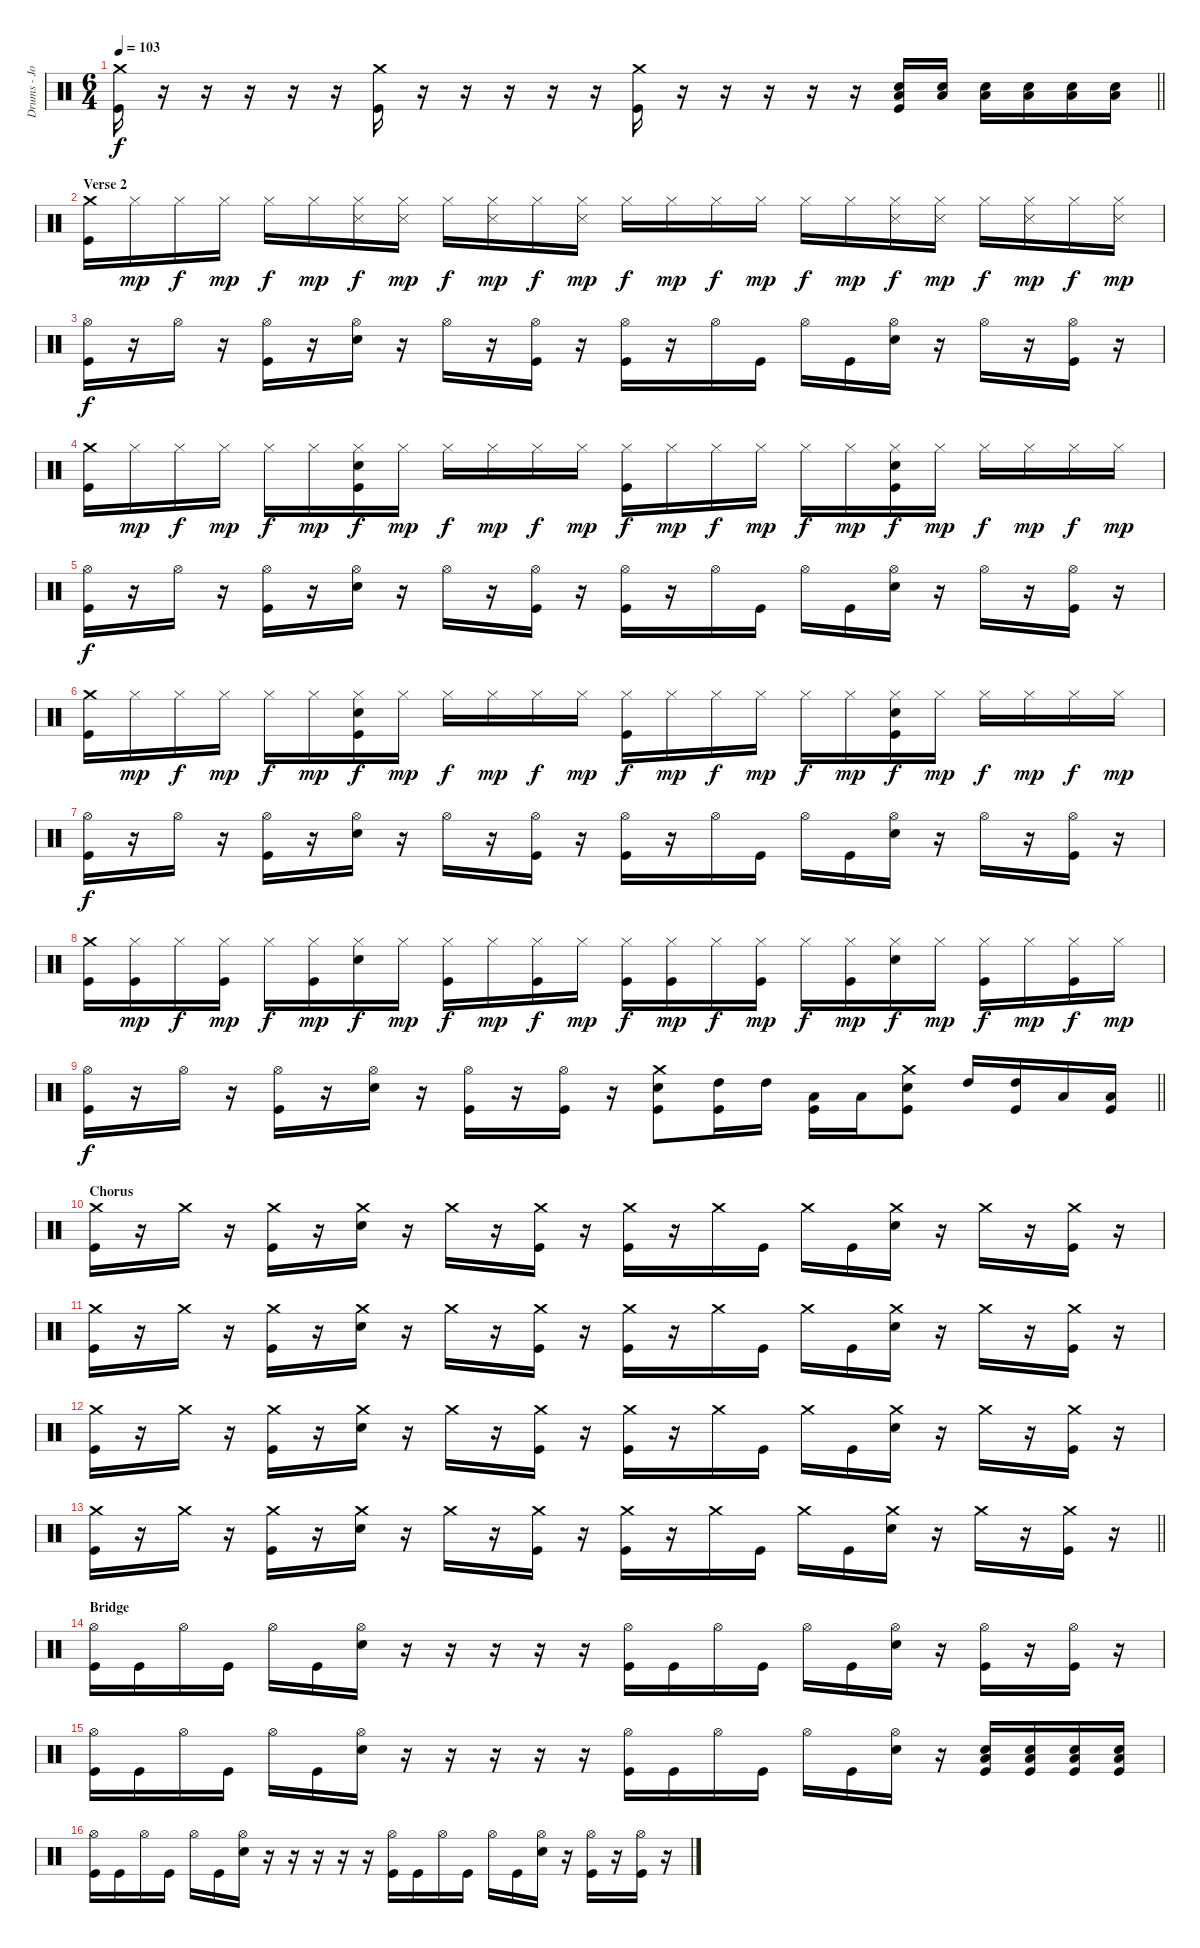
\track ("Drums - Josh Wills" "Drums - Jo") {instrument percussion}
\staff {score}
\articulation defaults
\ts (6 4)
\tempo 103
\clef neutral
\barLineRight lightlight
\ks c
("Crash medium (hit)" "Kick (hit)").16{dy f} r.16 r.16 r.16 r.16 r.16 ("Crash medium (hit)" "Kick (hit)").16 r.16 r.16 r.16 r.16 r.16 ("Crash medium (hit)" "Kick (hit)").16 r.16 r.16 r.16 r.16 r.16 ("Low Tom (hit)" "Electric Snare (hit)" "Kick (hit)").16 ("Low Tom (hit)" "Electric Snare (hit)").16 ("Low Tom (hit)" "Electric Snare (hit)").16 ("Low Tom (hit)" "Electric Snare (hit)").16 ("Low Tom (hit)" "Electric Snare (hit)").16 ("Low Tom (hit)" "Electric Snare (hit)").16 |
\section ("" "Verse 2")
("Crash medium (hit)" "Kick (hit)").16 "Hi-Hat (closed)".16{dy mp} "Hi-Hat (closed)".16{dy f} "Hi-Hat (closed)".16{dy mp} "Hi-Hat (closed)".16{dy f} "Hi-Hat (closed)".16{dy mp} ("Hi-Hat (closed)" "Snare (side stick) 3").16{dy f} ("Hi-Hat (closed)" "Snare (side stick) 3").16{dy mp} "Hi-Hat (closed)".16{dy f} ("Hi-Hat (closed)" "Snare (side stick) 3").16{dy mp} "Hi-Hat (closed)".16{dy f} ("Hi-Hat (closed)" "Snare (side stick) 3").16{dy mp} "Hi-Hat (closed)".16{dy f} "Hi-Hat (closed)".16{dy mp} "Hi-Hat (closed)".16{dy f} "Hi-Hat (closed)".16{dy mp} "Hi-Hat (closed)".16{dy f} "Hi-Hat (closed)".16{dy mp} ("Hi-Hat (closed)" "Snare (side stick) 3").16{dy f} ("Hi-Hat (closed)" "Snare (side stick) 3").16{dy mp} "Hi-Hat (closed)".16{dy f} ("Hi-Hat (closed)" "Snare (side stick) 3").16{dy mp} "Hi-Hat (closed)".16{dy f} ("Hi-Hat (closed)" "Snare (side stick) 3").16{dy mp} |
("Hi-Hat (open)" "Kick (hit)").16{dy f} r.16 "Hi-Hat (open)".16 r.16 ("Hi-Hat (open)" "Kick (hit)").16 r.16 ("Hi-Hat (open)" "Electric Snare (hit)").16 r.16 "Hi-Hat (open)".16 r.16 ("Hi-Hat (open)" "Kick (hit)").16 r.16 ("Hi-Hat (open)" "Kick (hit)").16 r.16 "Hi-Hat (open)".16 "Kick (hit)".16 "Hi-Hat (open)".16 "Kick (hit)".16 ("Hi-Hat (open)" "Electric Snare (hit)").16 r.16 "Hi-Hat (open)".16 r.16 ("Hi-Hat (open)" "Kick (hit)").16 r.16 |
("Crash medium (hit)" "Kick (hit)").16 "Hi-Hat (closed)".16{dy mp} "Hi-Hat (closed)".16{dy f} "Hi-Hat (closed)".16{dy mp} "Hi-Hat (closed)".16{dy f} "Hi-Hat (closed)".16{dy mp} ("Hi-Hat (closed)" "Electric Snare (hit)" "Kick (hit)").16{dy f} "Hi-Hat (closed)".16{dy mp} "Hi-Hat (closed)".16{dy f} "Hi-Hat (closed)".16{dy mp} "Hi-Hat (closed)".16{dy f} "Hi-Hat (closed)".16{dy mp} ("Hi-Hat (closed)" "Kick (hit)").16{dy f} "Hi-Hat (closed)".16{dy mp} "Hi-Hat (closed)".16{dy f} "Hi-Hat (closed)".16{dy mp} "Hi-Hat (closed)".16{dy f} "Hi-Hat (closed)".16{dy mp} ("Hi-Hat (closed)" "Electric Snare (hit)" "Kick (hit)").16{dy f} "Hi-Hat (closed)".16{dy mp} "Hi-Hat (closed)".16{dy f} "Hi-Hat (closed)".16{dy mp} "Hi-Hat (closed)".16{dy f} "Hi-Hat (closed)".16{dy mp} |
("Hi-Hat (open)" "Kick (hit)").16{dy f} r.16 "Hi-Hat (open)".16 r.16 ("Hi-Hat (open)" "Kick (hit)").16 r.16 ("Hi-Hat (open)" "Electric Snare (hit)").16 r.16 "Hi-Hat (open)".16 r.16 ("Hi-Hat (open)" "Kick (hit)").16 r.16 ("Hi-Hat (open)" "Kick (hit)").16 r.16 "Hi-Hat (open)".16 "Kick (hit)".16 "Hi-Hat (open)".16 "Kick (hit)".16 ("Hi-Hat (open)" "Electric Snare (hit)").16 r.16 "Hi-Hat (open)".16 r.16 ("Hi-Hat (open)" "Kick (hit)").16 r.16 |
("Crash medium (hit)" "Kick (hit)").16 "Hi-Hat (closed)".16{dy mp} "Hi-Hat (closed)".16{dy f} "Hi-Hat (closed)".16{dy mp} "Hi-Hat (closed)".16{dy f} "Hi-Hat (closed)".16{dy mp} ("Hi-Hat (closed)" "Electric Snare (hit)" "Kick (hit)").16{dy f} "Hi-Hat (closed)".16{dy mp} "Hi-Hat (closed)".16{dy f} "Hi-Hat (closed)".16{dy mp} "Hi-Hat (closed)".16{dy f} "Hi-Hat (closed)".16{dy mp} ("Hi-Hat (closed)" "Kick (hit)").16{dy f} "Hi-Hat (closed)".16{dy mp} "Hi-Hat (closed)".16{dy f} "Hi-Hat (closed)".16{dy mp} "Hi-Hat (closed)".16{dy f} "Hi-Hat (closed)".16{dy mp} ("Hi-Hat (closed)" "Electric Snare (hit)" "Kick (hit)").16{dy f} "Hi-Hat (closed)".16{dy mp} "Hi-Hat (closed)".16{dy f} "Hi-Hat (closed)".16{dy mp} "Hi-Hat (closed)".16{dy f} "Hi-Hat (closed)".16{dy mp} |
("Hi-Hat (open)" "Kick (hit)").16{dy f} r.16 "Hi-Hat (open)".16 r.16 ("Hi-Hat (open)" "Kick (hit)").16 r.16 ("Hi-Hat (open)" "Electric Snare (hit)").16 r.16 "Hi-Hat (open)".16 r.16 ("Hi-Hat (open)" "Kick (hit)").16 r.16 ("Hi-Hat (open)" "Kick (hit)").16 r.16 "Hi-Hat (open)".16 "Kick (hit)".16 "Hi-Hat (open)".16 "Kick (hit)".16 ("Hi-Hat (open)" "Electric Snare (hit)").16 r.16 "Hi-Hat (open)".16 r.16 ("Hi-Hat (open)" "Kick (hit)").16 r.16 |
("Crash medium (hit)" "Kick (hit)").16 ("Hi-Hat (closed)" "Kick (hit)").16{dy mp} "Hi-Hat (closed)".16{dy f} ("Hi-Hat (closed)" "Kick (hit)").16{dy mp} "Hi-Hat (closed)".16{dy f} ("Hi-Hat (closed)" "Kick (hit)").16{dy mp} ("Hi-Hat (closed)" "Electric Snare (hit)").16{dy f} "Hi-Hat (closed)".16{dy mp} ("Hi-Hat (closed)" "Kick (hit)").16{dy f} "Hi-Hat (closed)".16{dy mp} ("Hi-Hat (closed)" "Kick (hit)").16{dy f} "Hi-Hat (closed)".16{dy mp} ("Hi-Hat (closed)" "Kick (hit)").16{dy f} ("Hi-Hat (closed)" "Kick (hit)").16{dy mp} "Hi-Hat (closed)".16{dy f} ("Hi-Hat (closed)" "Kick (hit)").16{dy mp} "Hi-Hat (closed)".16{dy f} ("Hi-Hat (closed)" "Kick (hit)").16{dy mp} ("Hi-Hat (closed)" "Electric Snare (hit)").16{dy f} "Hi-Hat (closed)".16{dy mp} ("Hi-Hat (closed)" "Kick (hit)").16{dy f} "Hi-Hat (closed)".16{dy mp} ("Hi-Hat (closed)" "Kick (hit)").16{dy f} "Hi-Hat (closed)".16{dy mp} |
\barLineRight lightlight
("Hi-Hat (open)" "Kick (hit)").16{dy f} r.16 "Hi-Hat (open)".16 r.16 ("Hi-Hat (open)" "Kick (hit)").16 r.16 ("Hi-Hat (open)" "Electric Snare (hit)").16 r.16 ("Hi-Hat (open)" "Kick (hit)").16 r.16 ("Hi-Hat (open)" "Kick (hit)").16 r.16 ("Crash medium (hit)" "Electric Snare (hit)" "Kick (hit)").8 ("High Tom (hit)" "Kick (hit)").16 "High Tom (hit)".16 ("Low Tom (hit)" "Kick (hit)").16 "Low Tom (hit)".16 ("Crash medium (hit)" "Electric Snare (hit)" "Kick (hit)").8 "High Tom (hit)".16 ("High Tom (hit)" "Kick (hit)").16 "Low Tom (hit)".16 ("Low Tom (hit)" "Kick (hit)").16 |
\section ("" "Chorus")
("Crash medium (hit)" "Kick (hit)").16 r.16 "Crash medium (hit)".16 r.16 ("Crash medium (hit)" "Kick (hit)").16 r.16 ("Crash medium (hit)" "Electric Snare (hit)").16 r.16 "Crash medium (hit)".16 r.16 ("Crash medium (hit)" "Kick (hit)").16 r.16 ("Crash medium (hit)" "Kick (hit)").16 r.16 "Crash medium (hit)".16 "Kick (hit)".16 "Crash medium (hit)".16 "Kick (hit)".16 ("Crash medium (hit)" "Electric Snare (hit)").16 r.16 "Crash medium (hit)".16 r.16 ("Crash medium (hit)" "Kick (hit)").16 r.16 |
("Crash medium (hit)" "Kick (hit)").16 r.16 "Crash medium (hit)".16 r.16 ("Crash medium (hit)" "Kick (hit)").16 r.16 ("Crash medium (hit)" "Electric Snare (hit)").16 r.16 "Crash medium (hit)".16 r.16 ("Crash medium (hit)" "Kick (hit)").16 r.16 ("Crash medium (hit)" "Kick (hit)").16 r.16 "Crash medium (hit)".16 "Kick (hit)".16 "Crash medium (hit)".16 "Kick (hit)".16 ("Crash medium (hit)" "Electric Snare (hit)").16 r.16 "Crash medium (hit)".16 r.16 ("Crash medium (hit)" "Kick (hit)").16 r.16 |
("Crash medium (hit)" "Kick (hit)").16 r.16 "Crash medium (hit)".16 r.16 ("Crash medium (hit)" "Kick (hit)").16 r.16 ("Crash medium (hit)" "Electric Snare (hit)").16 r.16 "Crash medium (hit)".16 r.16 ("Crash medium (hit)" "Kick (hit)").16 r.16 ("Crash medium (hit)" "Kick (hit)").16 r.16 "Crash medium (hit)".16 "Kick (hit)".16 "Crash medium (hit)".16 "Kick (hit)".16 ("Crash medium (hit)" "Electric Snare (hit)").16 r.16 "Crash medium (hit)".16 r.16 ("Crash medium (hit)" "Kick (hit)").16 r.16 |
\barLineRight lightlight
("Crash medium (hit)" "Kick (hit)").16 r.16 "Crash medium (hit)".16 r.16 ("Crash medium (hit)" "Kick (hit)").16 r.16 ("Crash medium (hit)" "Electric Snare (hit)").16 r.16 "Crash medium (hit)".16 r.16 ("Crash medium (hit)" "Kick (hit)").16 r.16 ("Crash medium (hit)" "Kick (hit)").16 r.16 "Crash medium (hit)".16 "Kick (hit)".16 "Crash medium (hit)".16 "Kick (hit)".16 ("Crash medium (hit)" "Electric Snare (hit)").16 r.16 "Crash medium (hit)".16 r.16 ("Crash medium (hit)" "Kick (hit)").16 r.16 |
\section ("" "Bridge")
("Hi-Hat (open)" "Kick (hit)").16 "Kick (hit)".16 "Hi-Hat (open)".16 "Kick (hit)".16 "Hi-Hat (open)".16 "Kick (hit)".16 ("Hi-Hat (open)" "Electric Snare (hit)").16 r.16 r.16 r.16 r.16 r.16 ("Hi-Hat (open)" "Kick (hit)").16 "Kick (hit)".16 "Hi-Hat (open)".16 "Kick (hit)".16 "Hi-Hat (open)".16 "Kick (hit)".16 ("Hi-Hat (open)" "Electric Snare (hit)").16 r.16 ("Hi-Hat (open)" "Kick (hit)").16 r.16 ("Hi-Hat (open)" "Kick (hit)").16 r.16 |
("Hi-Hat (open)" "Kick (hit)").16 "Kick (hit)".16 "Hi-Hat (open)".16 "Kick (hit)".16 "Hi-Hat (open)".16 "Kick (hit)".16 ("Hi-Hat (open)" "Electric Snare (hit)").16 r.16 r.16 r.16 r.16 r.16 ("Hi-Hat (open)" "Kick (hit)").16 "Kick (hit)".16 "Hi-Hat (open)".16 "Kick (hit)".16 "Hi-Hat (open)".16 "Kick (hit)".16 ("Hi-Hat (open)" "Electric Snare (hit)").16 r.16 ("Low Tom (hit)" "Electric Snare (hit)" "Kick (hit)").16 ("Low Tom (hit)" "Electric Snare (hit)" "Kick (hit)").16 ("Low Tom (hit)" "Electric Snare (hit)" "Kick (hit)").16 ("Low Tom (hit)" "Electric Snare (hit)" "Kick (hit)").16 |
("Hi-Hat (open)" "Kick (hit)").16 "Kick (hit)".16 "Hi-Hat (open)".16 "Kick (hit)".16 "Hi-Hat (open)".16 "Kick (hit)".16 ("Hi-Hat (open)" "Electric Snare (hit)").16 r.16 r.16 r.16 r.16 r.16 ("Hi-Hat (open)" "Kick (hit)").16 "Kick (hit)".16 "Hi-Hat (open)".16 "Kick (hit)".16 "Hi-Hat (open)".16 "Kick (hit)".16 ("Hi-Hat (open)" "Electric Snare (hit)").16 r.16 ("Hi-Hat (open)" "Kick (hit)").16 r.16 ("Hi-Hat (open)" "Kick (hit)").16 r.16
